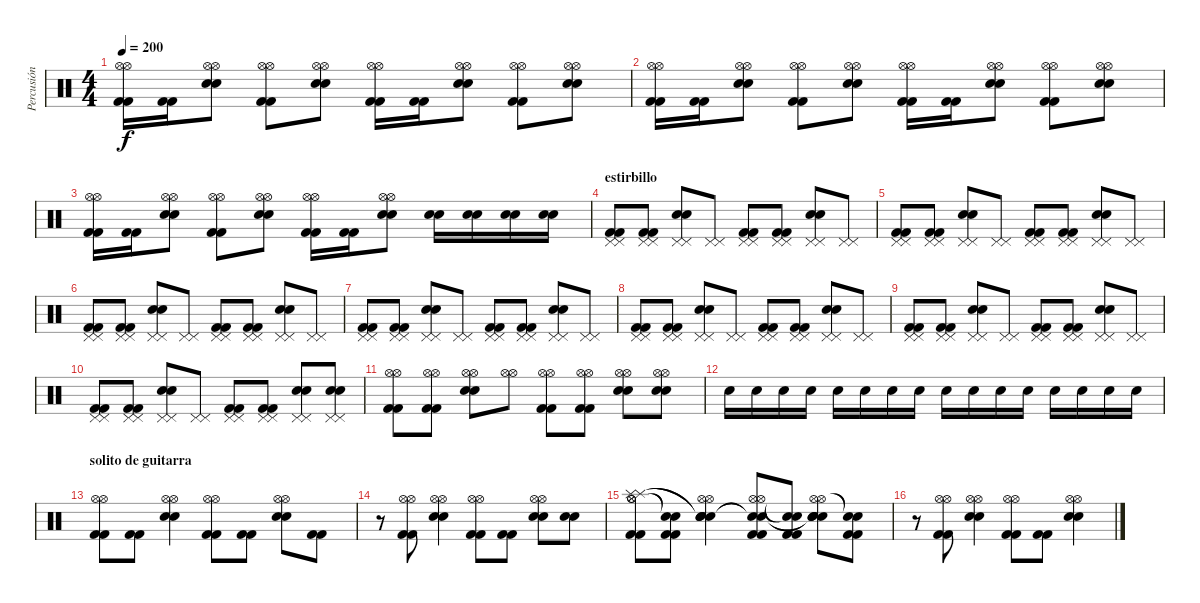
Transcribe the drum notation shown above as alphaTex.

\track ("Percusión" "Percusión") {instrument percussion}
\staff {score}
\articulation defaults
\ts (4 4)
\tempo 200
\clef neutral
\ks c
("Kick (hit) 2" "Kick (hit) 2" "Hi-Hat (open)" "Hi-Hat (open)").16{dy f} ("Kick (hit) 2" "Kick (hit) 2").16 ("Snare (hit) 2" "Snare (hit) 2" "Hi-Hat (open)" "Hi-Hat (open)").8 ("Kick (hit) 2" "Kick (hit) 2" "Hi-Hat (open)" "Hi-Hat (open)").8 ("Snare (hit) 2" "Snare (hit) 2" "Hi-Hat (open)" "Hi-Hat (open)").8 ("Kick (hit) 2" "Kick (hit) 2" "Hi-Hat (open)" "Hi-Hat (open)").16 ("Kick (hit) 2" "Kick (hit) 2").16 ("Snare (hit) 2" "Snare (hit) 2" "Hi-Hat (open)" "Hi-Hat (open)").8 ("Kick (hit) 2" "Kick (hit) 2" "Hi-Hat (open)" "Hi-Hat (open)").8 ("Snare (hit) 2" "Snare (hit) 2" "Hi-Hat (open)" "Hi-Hat (open)").8 |
("Kick (hit) 2" "Kick (hit) 2" "Hi-Hat (open)" "Hi-Hat (open)").16 ("Kick (hit) 2" "Kick (hit) 2").16 ("Snare (hit) 2" "Snare (hit) 2" "Hi-Hat (open)" "Hi-Hat (open)").8 ("Kick (hit) 2" "Kick (hit) 2" "Hi-Hat (open)" "Hi-Hat (open)").8 ("Snare (hit) 2" "Snare (hit) 2" "Hi-Hat (open)" "Hi-Hat (open)").8 ("Kick (hit) 2" "Kick (hit) 2" "Hi-Hat (open)" "Hi-Hat (open)").16 ("Kick (hit) 2" "Kick (hit) 2").16 ("Snare (hit) 2" "Snare (hit) 2" "Hi-Hat (open)" "Hi-Hat (open)").8 ("Kick (hit) 2" "Kick (hit) 2" "Hi-Hat (open)" "Hi-Hat (open)").8 ("Snare (hit) 2" "Snare (hit) 2" "Hi-Hat (open)" "Hi-Hat (open)").8 |
("Kick (hit) 2" "Kick (hit) 2" "Hi-Hat (open)" "Hi-Hat (open)").16 ("Kick (hit) 2" "Kick (hit) 2").16 ("Snare (hit) 2" "Snare (hit) 2" "Hi-Hat (open)" "Hi-Hat (open)").8 ("Kick (hit) 2" "Kick (hit) 2" "Hi-Hat (open)" "Hi-Hat (open)").8 ("Snare (hit) 2" "Snare (hit) 2" "Hi-Hat (open)" "Hi-Hat (open)").8 ("Kick (hit) 2" "Kick (hit) 2" "Hi-Hat (open)" "Hi-Hat (open)").16 ("Kick (hit) 2" "Kick (hit) 2").16 ("Snare (hit) 2" "Snare (hit) 2" "Hi-Hat (open)" "Hi-Hat (open)").8 ("Snare (hit) 2" "Snare (hit) 2").16 ("Snare (hit) 2" "Snare (hit) 2").16 ("Snare (hit) 2" "Snare (hit) 2").16 ("Snare (hit) 2" "Snare (hit) 2").16 |
\section ("" "estirbillo")
("Kick (hit) 2" "Kick (hit) 2" "Pedal Hi-Hat (hit)" "Pedal Hi-Hat (hit)").8 ("Kick (hit) 2" "Kick (hit) 2" "Pedal Hi-Hat (hit)" "Pedal Hi-Hat (hit)").8 ("Snare (hit) 2" "Snare (hit) 2" "Pedal Hi-Hat (hit)" "Pedal Hi-Hat (hit)").8 ("Pedal Hi-Hat (hit)" "Pedal Hi-Hat (hit)").8 ("Kick (hit) 2" "Kick (hit) 2" "Pedal Hi-Hat (hit)" "Pedal Hi-Hat (hit)").8 ("Kick (hit) 2" "Kick (hit) 2" "Pedal Hi-Hat (hit)" "Pedal Hi-Hat (hit)").8 ("Snare (hit) 2" "Snare (hit) 2" "Pedal Hi-Hat (hit)" "Pedal Hi-Hat (hit)").8 ("Pedal Hi-Hat (hit)" "Pedal Hi-Hat (hit)").8 |
("Kick (hit) 2" "Kick (hit) 2" "Pedal Hi-Hat (hit)" "Pedal Hi-Hat (hit)").8 ("Kick (hit) 2" "Kick (hit) 2" "Pedal Hi-Hat (hit)" "Pedal Hi-Hat (hit)").8 ("Snare (hit) 2" "Snare (hit) 2" "Pedal Hi-Hat (hit)" "Pedal Hi-Hat (hit)").8 ("Pedal Hi-Hat (hit)" "Pedal Hi-Hat (hit)").8 ("Kick (hit) 2" "Kick (hit) 2" "Pedal Hi-Hat (hit)" "Pedal Hi-Hat (hit)").8 ("Kick (hit) 2" "Kick (hit) 2" "Pedal Hi-Hat (hit)" "Pedal Hi-Hat (hit)").8 ("Snare (hit) 2" "Snare (hit) 2" "Pedal Hi-Hat (hit)" "Pedal Hi-Hat (hit)").8 ("Pedal Hi-Hat (hit)" "Pedal Hi-Hat (hit)").8 |
("Kick (hit) 2" "Kick (hit) 2" "Pedal Hi-Hat (hit)" "Pedal Hi-Hat (hit)").8 ("Kick (hit) 2" "Kick (hit) 2" "Pedal Hi-Hat (hit)" "Pedal Hi-Hat (hit)").8 ("Snare (hit) 2" "Snare (hit) 2" "Pedal Hi-Hat (hit)" "Pedal Hi-Hat (hit)").8 ("Pedal Hi-Hat (hit)" "Pedal Hi-Hat (hit)").8 ("Kick (hit) 2" "Kick (hit) 2" "Pedal Hi-Hat (hit)" "Pedal Hi-Hat (hit)").8 ("Kick (hit) 2" "Kick (hit) 2" "Pedal Hi-Hat (hit)" "Pedal Hi-Hat (hit)").8 ("Snare (hit) 2" "Snare (hit) 2" "Pedal Hi-Hat (hit)" "Pedal Hi-Hat (hit)").8 ("Pedal Hi-Hat (hit)" "Pedal Hi-Hat (hit)").8 |
("Kick (hit) 2" "Kick (hit) 2" "Pedal Hi-Hat (hit)" "Pedal Hi-Hat (hit)").8 ("Kick (hit) 2" "Kick (hit) 2" "Pedal Hi-Hat (hit)" "Pedal Hi-Hat (hit)").8 ("Snare (hit) 2" "Snare (hit) 2" "Pedal Hi-Hat (hit)" "Pedal Hi-Hat (hit)").8 ("Pedal Hi-Hat (hit)" "Pedal Hi-Hat (hit)").8 ("Kick (hit) 2" "Kick (hit) 2" "Pedal Hi-Hat (hit)" "Pedal Hi-Hat (hit)").8 ("Kick (hit) 2" "Kick (hit) 2" "Pedal Hi-Hat (hit)" "Pedal Hi-Hat (hit)").8 ("Snare (hit) 2" "Snare (hit) 2" "Pedal Hi-Hat (hit)" "Pedal Hi-Hat (hit)").8 ("Pedal Hi-Hat (hit)" "Pedal Hi-Hat (hit)").8 |
("Kick (hit) 2" "Kick (hit) 2" "Pedal Hi-Hat (hit)" "Pedal Hi-Hat (hit)").8 ("Kick (hit) 2" "Kick (hit) 2" "Pedal Hi-Hat (hit)" "Pedal Hi-Hat (hit)").8 ("Snare (hit) 2" "Snare (hit) 2" "Pedal Hi-Hat (hit)" "Pedal Hi-Hat (hit)").8 ("Pedal Hi-Hat (hit)" "Pedal Hi-Hat (hit)").8 ("Kick (hit) 2" "Kick (hit) 2" "Pedal Hi-Hat (hit)" "Pedal Hi-Hat (hit)").8 ("Kick (hit) 2" "Kick (hit) 2" "Pedal Hi-Hat (hit)" "Pedal Hi-Hat (hit)").8 ("Snare (hit) 2" "Snare (hit) 2" "Pedal Hi-Hat (hit)" "Pedal Hi-Hat (hit)").8 ("Pedal Hi-Hat (hit)" "Pedal Hi-Hat (hit)").8 |
("Kick (hit) 2" "Kick (hit) 2" "Pedal Hi-Hat (hit)" "Pedal Hi-Hat (hit)").8 ("Kick (hit) 2" "Kick (hit) 2" "Pedal Hi-Hat (hit)" "Pedal Hi-Hat (hit)").8 ("Snare (hit) 2" "Snare (hit) 2" "Pedal Hi-Hat (hit)" "Pedal Hi-Hat (hit)").8 ("Pedal Hi-Hat (hit)" "Pedal Hi-Hat (hit)").8 ("Kick (hit) 2" "Kick (hit) 2" "Pedal Hi-Hat (hit)" "Pedal Hi-Hat (hit)").8 ("Kick (hit) 2" "Kick (hit) 2" "Pedal Hi-Hat (hit)" "Pedal Hi-Hat (hit)").8 ("Snare (hit) 2" "Snare (hit) 2" "Pedal Hi-Hat (hit)" "Pedal Hi-Hat (hit)").8 ("Pedal Hi-Hat (hit)" "Pedal Hi-Hat (hit)").8 |
("Kick (hit) 2" "Kick (hit) 2" "Pedal Hi-Hat (hit)" "Pedal Hi-Hat (hit)").8 ("Kick (hit) 2" "Kick (hit) 2" "Pedal Hi-Hat (hit)" "Pedal Hi-Hat (hit)").8 ("Snare (hit) 2" "Snare (hit) 2" "Pedal Hi-Hat (hit)" "Pedal Hi-Hat (hit)").8 ("Pedal Hi-Hat (hit)" "Pedal Hi-Hat (hit)").8 ("Kick (hit) 2" "Kick (hit) 2" "Pedal Hi-Hat (hit)" "Pedal Hi-Hat (hit)").8 ("Kick (hit) 2" "Kick (hit) 2" "Pedal Hi-Hat (hit)" "Pedal Hi-Hat (hit)").8 ("Snare (hit) 2" "Snare (hit) 2" "Pedal Hi-Hat (hit)" "Pedal Hi-Hat (hit)").8 ("Snare (hit) 2" "Snare (hit) 2" "Pedal Hi-Hat (hit)" "Pedal Hi-Hat (hit)").8 |
("Kick (hit) 2" "Kick (hit) 2" "Hi-Hat (open)" "Hi-Hat (open)").8 ("Kick (hit) 2" "Kick (hit) 2" "Hi-Hat (open)" "Hi-Hat (open)").8 ("Snare (hit) 2" "Snare (hit) 2" "Hi-Hat (open)" "Hi-Hat (open)").8 ("Hi-Hat (open)" "Hi-Hat (open)").8 ("Kick (hit) 2" "Kick (hit) 2" "Hi-Hat (open)" "Hi-Hat (open)").8 ("Kick (hit) 2" "Kick (hit) 2" "Hi-Hat (open)" "Hi-Hat (open)").8 ("Snare (hit) 2" "Snare (hit) 2" "Hi-Hat (open)" "Hi-Hat (open)").8 ("Snare (hit) 2" "Snare (hit) 2" "Hi-Hat (open)" "Hi-Hat (open)").8 |
"Snare (hit) 2".16 "Snare (hit) 2".16 "Snare (hit) 2".16 "Snare (hit) 2".16 "Snare (hit) 2".16 "Snare (hit) 2".16 "Snare (hit) 2".16 "Snare (hit) 2".16 "Snare (hit) 2".16 "Snare (hit) 2".16 "Snare (hit) 2".16 "Snare (hit) 2".16 "Snare (hit) 2".16 "Snare (hit) 2".16 "Snare (hit) 2".16 "Snare (hit) 2".16 |
\section ("" "solito de guitarra")
("Kick (hit) 2" "Kick (hit) 2" "Hi-Hat (open)" "Hi-Hat (open)").8 ("Kick (hit) 2" "Kick (hit) 2").8 ("Snare (hit) 2" "Snare (hit) 2" "Hi-Hat (open)" "Hi-Hat (open)").4 ("Kick (hit) 2" "Kick (hit) 2" "Hi-Hat (open)" "Hi-Hat (open)").8 ("Kick (hit) 2" "Kick (hit) 2").8 ("Snare (hit) 2" "Snare (hit) 2" "Hi-Hat (open)" "Hi-Hat (open)").8 ("Kick (hit) 2" "Kick (hit) 2").8 |
r.8 ("Kick (hit) 2" "Kick (hit) 2" "Hi-Hat (open)" "Hi-Hat (open)").8 ("Snare (hit) 2" "Snare (hit) 2" "Hi-Hat (open)" "Hi-Hat (open)").4 ("Kick (hit) 2" "Kick (hit) 2" "Hi-Hat (open)" "Hi-Hat (open)").8 ("Kick (hit) 2" "Kick (hit) 2").8 ("Snare (hit) 2" "Snare (hit) 2" "Hi-Hat (open)" "Hi-Hat (open)").8 ("Snare (hit) 2" "Snare (hit) 2").8 |
("Kick (hit) 2" "Kick (hit) 2" "Hi-Hat (open)" "Hi-Hat (open)" "Splash (hit)" "Splash (hit)").8 ("Kick (hit) 2" "Kick (hit) 2" "Snare (hit)"{t} "Snare (hit)"{t}).8 ("Snare (hit) 2" "Snare (hit) 2" "Hi-Hat (open)" "Hi-Hat (open)" "Snare (hit)"{t} "Snare (hit)"{t}).4 ("Kick (hit) 2" "Kick (hit) 2" "Hi-Hat (open)" "Hi-Hat (open)" "Snare (hit)"{t} "Snare (hit)"{t}).8 ("Kick (hit) 2" "Kick (hit) 2" "Snare (hit)"{t} "Snare (hit)"{t}).8 ("Snare (hit) 2" "Snare (hit) 2" "Hi-Hat (open)" "Hi-Hat (open)" "Snare (hit)"{t} "Snare (hit)"{t}).8 ("Kick (hit) 2" "Kick (hit) 2" "Snare (hit)"{t} "Snare (hit)"{t}).8 |
r.8 ("Kick (hit) 2" "Kick (hit) 2" "Hi-Hat (open)" "Hi-Hat (open)").8 ("Snare (hit) 2" "Snare (hit) 2" "Hi-Hat (open)" "Hi-Hat (open)").4 ("Kick (hit) 2" "Kick (hit) 2" "Hi-Hat (open)" "Hi-Hat (open)").8 ("Kick (hit) 2" "Kick (hit) 2").8 ("Snare (hit) 2" "Snare (hit) 2" "Hi-Hat (open)" "Hi-Hat (open)").4
